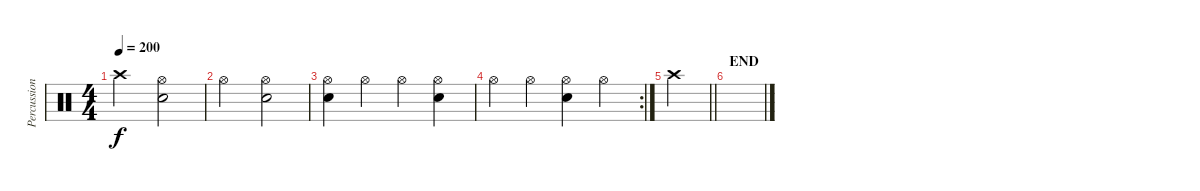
\track ("Percussion" "Percussion") {instrument percussion}
\staff {score}
\articulation defaults
\ts (4 4)
\tempo 200
\clef neutral
\ks c "Crash high (hit)".2{dy f}
("Hi-Hat (open)" "Snare (hit) 2").2 |
"Hi-Hat (open)".2 ("Hi-Hat (open)" "Snare (hit) 2").2 |
("Hi-Hat (open)" "Snare (hit) 2").4 "Hi-Hat (open)".4 "Hi-Hat (open)".4 ("Hi-Hat (open)" "Snare (hit) 2").4 |
\rc 2 "Hi-Hat (open)".4 "Hi-Hat (open)".4
("Hi-Hat (open)" "Snare (hit) 2").4 "Hi-Hat (open)".4 |
\barLineRight lightlight "Crash high (hit)".4
|
\section ("" "END")
